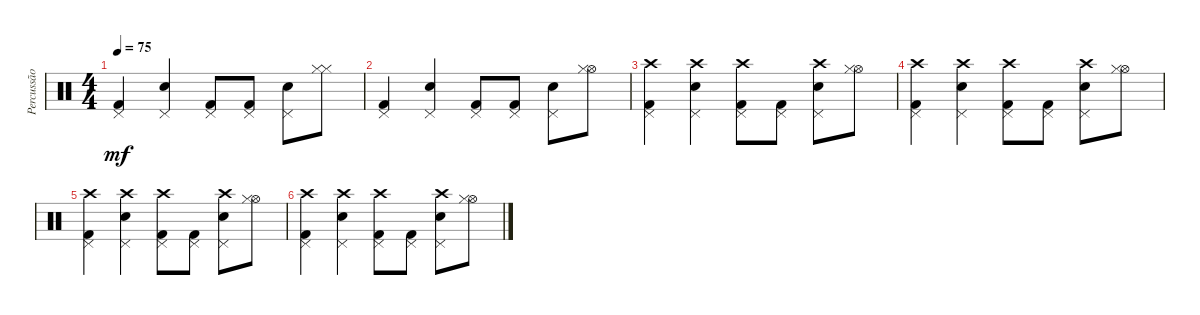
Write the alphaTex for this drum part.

\track ("Percussão" "Percussão") {instrument percussion}
\staff {score}
\articulation defaults
\ts (4 4)
\tempo 75
\clef neutral
\ks c
("Pedal Hi-Hat (hit)" "Kick (hit) 2").4{dy mf} ("Pedal Hi-Hat (hit)" "Electric Snare (hit)").4 ("Pedal Hi-Hat (hit)" "Kick (hit) 2").8 ("Pedal Hi-Hat (hit)" "Kick (hit) 2").8 ("Pedal Hi-Hat (hit)" "Electric Snare (hit)").8 ("Hi-Hat (closed)" "Hi-Hat (closed)").8 |
("Pedal Hi-Hat (hit)" "Kick (hit) 2").4 ("Pedal Hi-Hat (hit)" "Electric Snare (hit)").4 ("Pedal Hi-Hat (hit)" "Kick (hit) 2").8 ("Pedal Hi-Hat (hit)" "Kick (hit) 2").8 ("Pedal Hi-Hat (hit)" "Electric Snare (hit)").8 ("Hi-Hat (open)" "Hi-Hat (closed)").8 |
("Pedal Hi-Hat (hit)" "Kick (hit) 2" "Crash high (hit)").4 ("Pedal Hi-Hat (hit)" "Electric Snare (hit)" "Crash high (hit)").4 ("Pedal Hi-Hat (hit)" "Kick (hit) 2" "Crash high (hit)").8 ("Pedal Hi-Hat (hit)" "Kick (hit) 2").8 ("Pedal Hi-Hat (hit)" "Electric Snare (hit)" "Crash high (hit)").8 ("Hi-Hat (open)" "Hi-Hat (closed)").8 |
("Pedal Hi-Hat (hit)" "Kick (hit) 2" "Crash high (hit)").4 ("Pedal Hi-Hat (hit)" "Electric Snare (hit)" "Crash high (hit)").4 ("Pedal Hi-Hat (hit)" "Kick (hit) 2" "Crash high (hit)").8 ("Pedal Hi-Hat (hit)" "Kick (hit) 2").8 ("Pedal Hi-Hat (hit)" "Electric Snare (hit)" "Crash high (hit)").8 ("Hi-Hat (open)" "Hi-Hat (closed)").8 |
("Pedal Hi-Hat (hit)" "Kick (hit) 2" "Crash high (hit)").4 ("Pedal Hi-Hat (hit)" "Electric Snare (hit)" "Crash high (hit)").4 ("Pedal Hi-Hat (hit)" "Kick (hit) 2" "Crash high (hit)").8 ("Pedal Hi-Hat (hit)" "Kick (hit) 2").8 ("Pedal Hi-Hat (hit)" "Electric Snare (hit)" "Crash high (hit)").8 ("Hi-Hat (open)" "Hi-Hat (closed)").8 |
("Pedal Hi-Hat (hit)" "Kick (hit) 2" "Crash high (hit)").4 ("Pedal Hi-Hat (hit)" "Electric Snare (hit)" "Crash high (hit)").4 ("Pedal Hi-Hat (hit)" "Kick (hit) 2" "Crash high (hit)").8 ("Pedal Hi-Hat (hit)" "Kick (hit) 2").8 ("Pedal Hi-Hat (hit)" "Electric Snare (hit)" "Crash high (hit)").8 ("Hi-Hat (open)" "Hi-Hat (closed)").8
